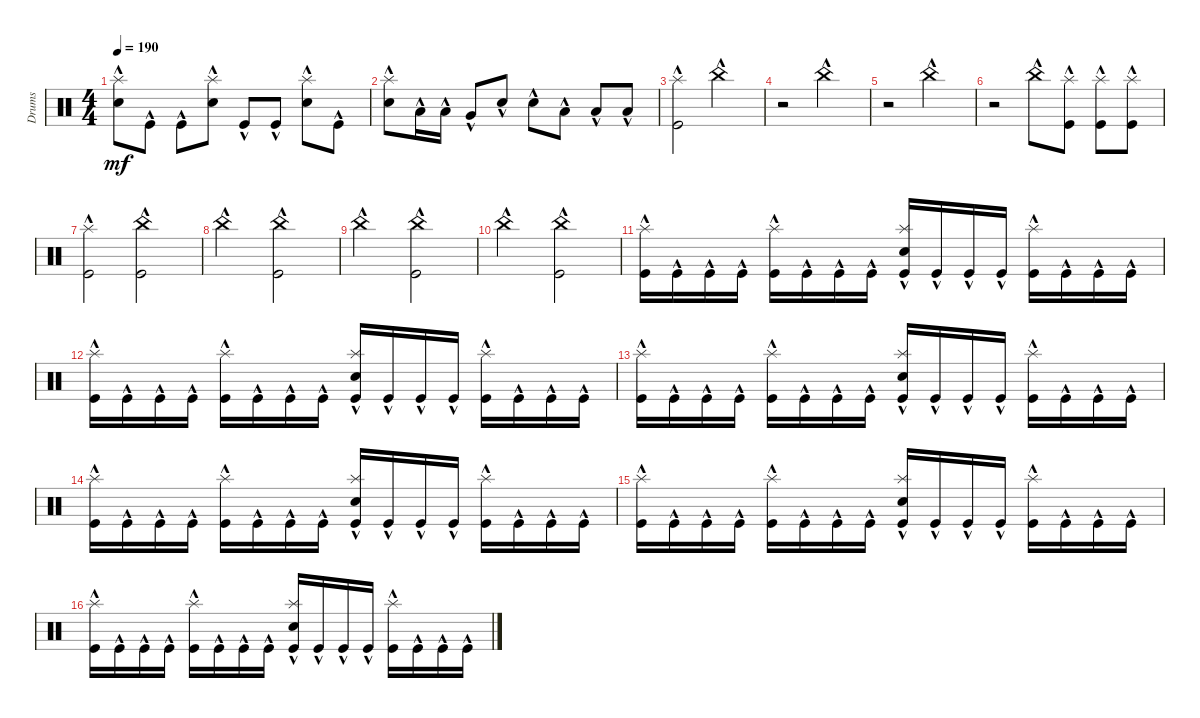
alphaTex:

\track ("Drums" "Drums") {instrument percussion}
\staff {score}
\articulation defaults
\ts (4 4)
\tempo 190
\clef neutral
\ks c
("Snare (hit) 2"{hac} "Splash (hit)"{hac}).8{dy mf} "Kick (hit)"{hac}.8 "Kick (hit)"{hac}.8 ("Snare (hit) 2"{hac} "Splash (hit)"{hac}).8 "Kick (hit)"{hac}.8 "Kick (hit)"{hac}.8 ("Snare (hit) 2"{hac} "Splash (hit)"{hac}).8 "Kick (hit)"{hac}.8 |
("Snare (hit) 2"{hac} "Splash (hit)"{hac}).8 "Low Tom (hit)"{hac}.16 "Low Tom (hit)"{hac}.16 "Very Low Tom (hit)"{hac}.8 "Snare (hit) 2"{hac}.8 "Snare (hit) 2"{hac}.8 "Low Tom (hit)"{hac}.8 "Low Tom (hit)"{hac}.8 "Low Tom (hit)"{hac}.8 |
("Kick (hit)"{hac} "Splash (hit)"{hac}).2 "China (hit)"{hac}.2 |
r.2 "China (hit)"{hac}.2 |
r.2 "China (hit)"{hac}.2 |
r.2 "China (hit)"{hac}.8 ("Kick (hit)"{hac} "Splash (hit)"{hac}).8 ("Kick (hit)"{hac} "Splash (hit)"{hac}).8 ("Kick (hit)"{hac} "Splash (hit)"{hac}).8 |
("Kick (hit)"{hac} "Splash (hit)"{hac}).2 ("Kick (hit)"{hac} "China (hit)"{hac}).2 |
"China (hit)"{hac}.2 ("China (hit)"{hac} "Kick (hit)"{hac}).2 |
"China (hit)"{hac}.2 ("China (hit)"{hac} "Kick (hit)"{hac}).2 |
"China (hit)"{hac}.2 ("China (hit)"{hac} "Kick (hit)"{hac}).2 |
("Kick (hit)"{hac} "Splash (hit)"{hac}).16 "Kick (hit)"{hac}.16 "Kick (hit)"{hac}.16 "Kick (hit)"{hac}.16 ("Kick (hit)"{hac} "Splash (hit)"{hac}).16 "Kick (hit)"{hac}.16 "Kick (hit)"{hac}.16 "Kick (hit)"{hac}.16 ("Kick (hit)"{hac} "Splash (hit)"{hac} "Snare (hit) 2"{hac}).16 "Kick (hit)"{hac}.16 "Kick (hit)"{hac}.16 "Kick (hit)"{hac}.16 ("Kick (hit)"{hac} "Splash (hit)"{hac}).16 "Kick (hit)"{hac}.16 "Kick (hit)"{hac}.16 "Kick (hit)"{hac}.16 |
("Kick (hit)"{hac} "Splash (hit)"{hac}).16 "Kick (hit)"{hac}.16 "Kick (hit)"{hac}.16 "Kick (hit)"{hac}.16 ("Kick (hit)"{hac} "Splash (hit)"{hac}).16 "Kick (hit)"{hac}.16 "Kick (hit)"{hac}.16 "Kick (hit)"{hac}.16 ("Kick (hit)"{hac} "Splash (hit)"{hac} "Snare (hit) 2"{hac}).16 "Kick (hit)"{hac}.16 "Kick (hit)"{hac}.16 "Kick (hit)"{hac}.16 ("Kick (hit)"{hac} "Splash (hit)"{hac}).16 "Kick (hit)"{hac}.16 "Kick (hit)"{hac}.16 "Kick (hit)"{hac}.16 |
("Kick (hit)"{hac} "Splash (hit)"{hac}).16 "Kick (hit)"{hac}.16 "Kick (hit)"{hac}.16 "Kick (hit)"{hac}.16 ("Kick (hit)"{hac} "Splash (hit)"{hac}).16 "Kick (hit)"{hac}.16 "Kick (hit)"{hac}.16 "Kick (hit)"{hac}.16 ("Kick (hit)"{hac} "Splash (hit)"{hac} "Snare (hit) 2"{hac}).16 "Kick (hit)"{hac}.16 "Kick (hit)"{hac}.16 "Kick (hit)"{hac}.16 ("Kick (hit)"{hac} "Splash (hit)"{hac}).16 "Kick (hit)"{hac}.16 "Kick (hit)"{hac}.16 "Kick (hit)"{hac}.16 |
("Kick (hit)"{hac} "Splash (hit)"{hac}).16 "Kick (hit)"{hac}.16 "Kick (hit)"{hac}.16 "Kick (hit)"{hac}.16 ("Kick (hit)"{hac} "Splash (hit)"{hac}).16 "Kick (hit)"{hac}.16 "Kick (hit)"{hac}.16 "Kick (hit)"{hac}.16 ("Kick (hit)"{hac} "Splash (hit)"{hac} "Snare (hit) 2"{hac}).16 "Kick (hit)"{hac}.16 "Kick (hit)"{hac}.16 "Kick (hit)"{hac}.16 ("Kick (hit)"{hac} "Splash (hit)"{hac}).16 "Kick (hit)"{hac}.16 "Kick (hit)"{hac}.16 "Kick (hit)"{hac}.16 |
("Kick (hit)"{hac} "Splash (hit)"{hac}).16 "Kick (hit)"{hac}.16 "Kick (hit)"{hac}.16 "Kick (hit)"{hac}.16 ("Kick (hit)"{hac} "Splash (hit)"{hac}).16 "Kick (hit)"{hac}.16 "Kick (hit)"{hac}.16 "Kick (hit)"{hac}.16 ("Kick (hit)"{hac} "Splash (hit)"{hac} "Snare (hit) 2"{hac}).16 "Kick (hit)"{hac}.16 "Kick (hit)"{hac}.16 "Kick (hit)"{hac}.16 ("Kick (hit)"{hac} "Splash (hit)"{hac}).16 "Kick (hit)"{hac}.16 "Kick (hit)"{hac}.16 "Kick (hit)"{hac}.16 |
("Kick (hit)"{hac} "Splash (hit)"{hac}).16 "Kick (hit)"{hac}.16 "Kick (hit)"{hac}.16 "Kick (hit)"{hac}.16 ("Kick (hit)"{hac} "Splash (hit)"{hac}).16 "Kick (hit)"{hac}.16 "Kick (hit)"{hac}.16 "Kick (hit)"{hac}.16 ("Kick (hit)"{hac} "Splash (hit)"{hac} "Snare (hit) 2"{hac}).16 "Kick (hit)"{hac}.16 "Kick (hit)"{hac}.16 "Kick (hit)"{hac}.16 ("Kick (hit)"{hac} "Splash (hit)"{hac}).16 "Kick (hit)"{hac}.16 "Kick (hit)"{hac}.16 "Kick (hit)"{hac}.16
